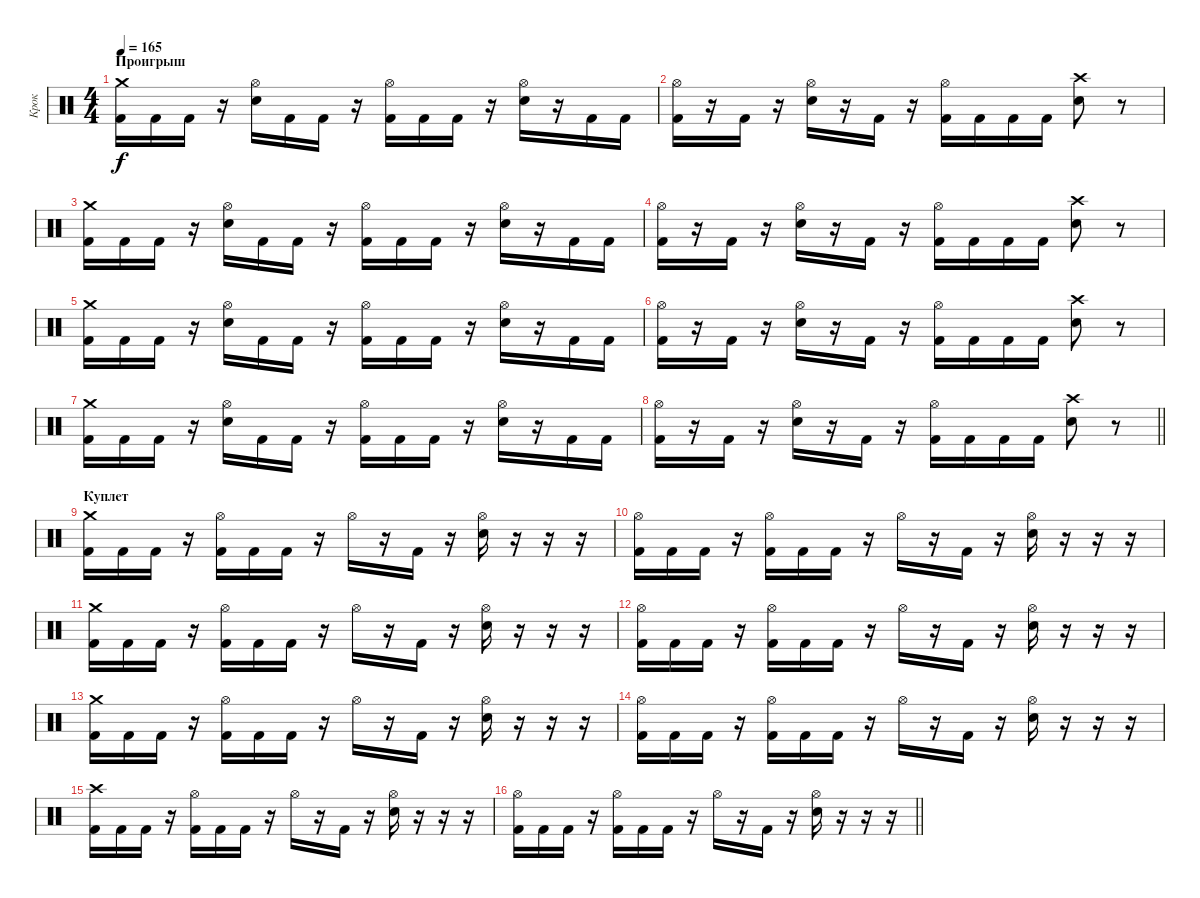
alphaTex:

\track ("Крок" "Крок") {instrument percussion}
\staff {score}
\articulation defaults
\ts (4 4)
\section ("" "Проигрыш")
\tempo 165
\clef neutral
\ks c
("Kick (hit) 2" "Crash medium (hit)").16{dy f} "Kick (hit) 2".16 "Kick (hit) 2".16 r.16 ("Electric Snare (hit)" "Hi-Hat (open)").16 "Kick (hit) 2".16 "Kick (hit) 2".16 r.16 ("Kick (hit) 2" "Hi-Hat (open)").16 "Kick (hit) 2".16 "Kick (hit) 2".16 r.16 ("Electric Snare (hit)" "Hi-Hat (open)").16 r.16 "Kick (hit) 2".16 "Kick (hit) 2".16 |
("Kick (hit) 2" "Hi-Hat (open)").16 r.16 "Kick (hit) 2".16 r.16 ("Electric Snare (hit)" "Hi-Hat (open)").16 r.16 "Kick (hit) 2".16 r.16 ("Kick (hit) 2" "Hi-Hat (open)").16 "Kick (hit) 2".16 "Kick (hit) 2".16 "Kick (hit) 2".16 ("Electric Snare (hit)" "Crash high (hit)").8 r.8 |
("Kick (hit) 2" "Crash medium (hit)").16 "Kick (hit) 2".16 "Kick (hit) 2".16 r.16 ("Electric Snare (hit)" "Hi-Hat (open)").16 "Kick (hit) 2".16 "Kick (hit) 2".16 r.16 ("Kick (hit) 2" "Hi-Hat (open)").16 "Kick (hit) 2".16 "Kick (hit) 2".16 r.16 ("Electric Snare (hit)" "Hi-Hat (open)").16 r.16 "Kick (hit) 2".16 "Kick (hit) 2".16 |
("Kick (hit) 2" "Hi-Hat (open)").16 r.16 "Kick (hit) 2".16 r.16 ("Electric Snare (hit)" "Hi-Hat (open)").16 r.16 "Kick (hit) 2".16 r.16 ("Kick (hit) 2" "Hi-Hat (open)").16 "Kick (hit) 2".16 "Kick (hit) 2".16 "Kick (hit) 2".16 ("Electric Snare (hit)" "Crash high (hit)").8 r.8 |
("Kick (hit) 2" "Crash medium (hit)").16 "Kick (hit) 2".16 "Kick (hit) 2".16 r.16 ("Electric Snare (hit)" "Hi-Hat (open)").16 "Kick (hit) 2".16 "Kick (hit) 2".16 r.16 ("Kick (hit) 2" "Hi-Hat (open)").16 "Kick (hit) 2".16 "Kick (hit) 2".16 r.16 ("Electric Snare (hit)" "Hi-Hat (open)").16 r.16 "Kick (hit) 2".16 "Kick (hit) 2".16 |
("Kick (hit) 2" "Hi-Hat (open)").16 r.16 "Kick (hit) 2".16 r.16 ("Electric Snare (hit)" "Hi-Hat (open)").16 r.16 "Kick (hit) 2".16 r.16 ("Kick (hit) 2" "Hi-Hat (open)").16 "Kick (hit) 2".16 "Kick (hit) 2".16 "Kick (hit) 2".16 ("Electric Snare (hit)" "Crash high (hit)").8 r.8 |
("Kick (hit) 2" "Crash medium (hit)").16 "Kick (hit) 2".16 "Kick (hit) 2".16 r.16 ("Electric Snare (hit)" "Hi-Hat (open)").16 "Kick (hit) 2".16 "Kick (hit) 2".16 r.16 ("Kick (hit) 2" "Hi-Hat (open)").16 "Kick (hit) 2".16 "Kick (hit) 2".16 r.16 ("Electric Snare (hit)" "Hi-Hat (open)").16 r.16 "Kick (hit) 2".16 "Kick (hit) 2".16 |
\barLineRight lightlight
("Kick (hit) 2" "Hi-Hat (open)").16 r.16 "Kick (hit) 2".16 r.16 ("Electric Snare (hit)" "Hi-Hat (open)").16 r.16 "Kick (hit) 2".16 r.16 ("Kick (hit) 2" "Hi-Hat (open)").16 "Kick (hit) 2".16 "Kick (hit) 2".16 "Kick (hit) 2".16 ("Electric Snare (hit)" "Crash high (hit)").8 r.8 |
\section ("" "Куплет")
("Kick (hit) 2" "Crash medium (hit)").16 "Kick (hit) 2".16 "Kick (hit) 2".16 r.16 ("Kick (hit) 2" "Hi-Hat (open)").16 "Kick (hit) 2".16 "Kick (hit) 2".16 r.16 "Hi-Hat (open)".16 r.16 "Kick (hit) 2".16 r.16 ("Electric Snare (hit)" "Hi-Hat (open)").16 r.16 r.16 r.16 |
("Kick (hit) 2" "Hi-Hat (open)").16 "Kick (hit) 2".16 "Kick (hit) 2".16 r.16 ("Kick (hit) 2" "Hi-Hat (open)").16 "Kick (hit) 2".16 "Kick (hit) 2".16 r.16 "Hi-Hat (open)".16 r.16 "Kick (hit) 2".16 r.16 ("Electric Snare (hit)" "Hi-Hat (open)").16 r.16 r.16 r.16 |
("Kick (hit) 2" "Crash medium (hit)").16 "Kick (hit) 2".16 "Kick (hit) 2".16 r.16 ("Kick (hit) 2" "Hi-Hat (open)").16 "Kick (hit) 2".16 "Kick (hit) 2".16 r.16 "Hi-Hat (open)".16 r.16 "Kick (hit) 2".16 r.16 ("Electric Snare (hit)" "Hi-Hat (open)").16 r.16 r.16 r.16 |
("Kick (hit) 2" "Hi-Hat (open)").16 "Kick (hit) 2".16 "Kick (hit) 2".16 r.16 ("Kick (hit) 2" "Hi-Hat (open)").16 "Kick (hit) 2".16 "Kick (hit) 2".16 r.16 "Hi-Hat (open)".16 r.16 "Kick (hit) 2".16 r.16 ("Electric Snare (hit)" "Hi-Hat (open)").16 r.16 r.16 r.16 |
("Kick (hit) 2" "Crash medium (hit)").16 "Kick (hit) 2".16 "Kick (hit) 2".16 r.16 ("Kick (hit) 2" "Hi-Hat (open)").16 "Kick (hit) 2".16 "Kick (hit) 2".16 r.16 "Hi-Hat (open)".16 r.16 "Kick (hit) 2".16 r.16 ("Electric Snare (hit)" "Hi-Hat (open)").16 r.16 r.16 r.16 |
("Kick (hit) 2" "Hi-Hat (open)").16 "Kick (hit) 2".16 "Kick (hit) 2".16 r.16 ("Kick (hit) 2" "Hi-Hat (open)").16 "Kick (hit) 2".16 "Kick (hit) 2".16 r.16 "Hi-Hat (open)".16 r.16 "Kick (hit) 2".16 r.16 ("Electric Snare (hit)" "Hi-Hat (open)").16 r.16 r.16 r.16 |
("Kick (hit) 2" "Crash high (hit)").16 "Kick (hit) 2".16 "Kick (hit) 2".16 r.16 ("Kick (hit) 2" "Hi-Hat (open)").16 "Kick (hit) 2".16 "Kick (hit) 2".16 r.16 "Hi-Hat (open)".16 r.16 "Kick (hit) 2".16 r.16 ("Electric Snare (hit)" "Hi-Hat (open)").16 r.16 r.16 r.16 |
\barLineRight lightlight
("Kick (hit) 2" "Hi-Hat (open)").16 "Kick (hit) 2".16 "Kick (hit) 2".16 r.16 ("Kick (hit) 2" "Hi-Hat (open)").16 "Kick (hit) 2".16 "Kick (hit) 2".16 r.16 "Hi-Hat (open)".16 r.16 "Kick (hit) 2".16 r.16 ("Electric Snare (hit)" "Hi-Hat (open)").16 r.16 r.16 r.16
